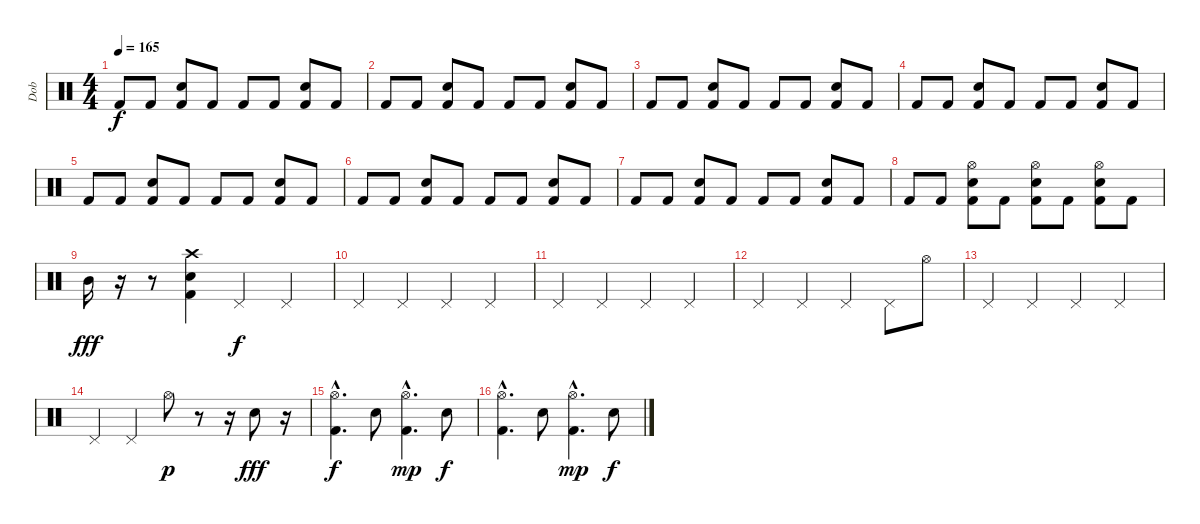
\track ("Dob" "Dob") {instrument percussion}
\staff {score}
\articulation defaults
\ts (4 4)
\tempo 165
\clef neutral
\ks c "Kick (hit) 2".8{dy f} "Kick (hit) 2".8
("Electric Snare (hit)" "Kick (hit) 2").8 "Kick (hit) 2".8 "Kick (hit) 2".8 "Kick (hit) 2".8 ("Electric Snare (hit)" "Kick (hit) 2").8 "Kick (hit) 2".8 |
"Kick (hit) 2".8 "Kick (hit) 2".8 ("Electric Snare (hit)" "Kick (hit) 2").8 "Kick (hit) 2".8 "Kick (hit) 2".8 "Kick (hit) 2".8 ("Electric Snare (hit)" "Kick (hit) 2").8 "Kick (hit) 2".8 |
"Kick (hit) 2".8 "Kick (hit) 2".8 ("Electric Snare (hit)" "Kick (hit) 2").8 "Kick (hit) 2".8 "Kick (hit) 2".8 "Kick (hit) 2".8 ("Electric Snare (hit)" "Kick (hit) 2").8 "Kick (hit) 2".8 |
"Kick (hit) 2".8 "Kick (hit) 2".8 ("Electric Snare (hit)" "Kick (hit) 2").8 "Kick (hit) 2".8 "Kick (hit) 2".8 "Kick (hit) 2".8 ("Electric Snare (hit)" "Kick (hit) 2").8 "Kick (hit) 2".8 |
"Kick (hit) 2".8 "Kick (hit) 2".8 ("Electric Snare (hit)" "Kick (hit) 2").8 "Kick (hit) 2".8 "Kick (hit) 2".8 "Kick (hit) 2".8 ("Electric Snare (hit)" "Kick (hit) 2").8 "Kick (hit) 2".8 |
"Kick (hit) 2".8 "Kick (hit) 2".8 ("Electric Snare (hit)" "Kick (hit) 2").8 "Kick (hit) 2".8 "Kick (hit) 2".8 "Kick (hit) 2".8 ("Electric Snare (hit)" "Kick (hit) 2").8 "Kick (hit) 2".8 |
"Kick (hit) 2".8 "Kick (hit) 2".8 ("Electric Snare (hit)" "Kick (hit) 2").8 "Kick (hit) 2".8 "Kick (hit) 2".8 "Kick (hit) 2".8 ("Electric Snare (hit)" "Kick (hit) 2").8 "Kick (hit) 2".8 |
"Kick (hit) 2".8 "Kick (hit) 2".8 ("Electric Snare (hit)" "Kick (hit) 2" "Hi-Hat (open)").8 "Kick (hit) 2".8 ("Electric Snare (hit)" "Kick (hit) 2" "Hi-Hat (open)").8 "Kick (hit) 2".8 ("Electric Snare (hit)" "Kick (hit) 2" "Hi-Hat (open)").8 "Kick (hit) 2".8 |
"Mid Tom (hit)"{tr (47 32)}.16{dy fff} r.16 r.8 ("Electric Snare (hit)" "Kick (hit) 2" "Crash high (hit)").4 "Pedal Hi-Hat (hit)".4{dy f} "Pedal Hi-Hat (hit)".4 |
"Pedal Hi-Hat (hit)".4 "Pedal Hi-Hat (hit)".4 "Pedal Hi-Hat (hit)".4 "Pedal Hi-Hat (hit)".4 |
"Pedal Hi-Hat (hit)".4 "Pedal Hi-Hat (hit)".4 "Pedal Hi-Hat (hit)".4 "Pedal Hi-Hat (hit)".4 |
"Pedal Hi-Hat (hit)".4 "Pedal Hi-Hat (hit)".4 "Pedal Hi-Hat (hit)".4 "Pedal Hi-Hat (hit)".8 "Hi-Hat (open)".8 |
"Pedal Hi-Hat (hit)".4 "Pedal Hi-Hat (hit)".4 "Pedal Hi-Hat (hit)".4 "Pedal Hi-Hat (hit)".4 |
"Pedal Hi-Hat (hit)".4 "Pedal Hi-Hat (hit)".4 "Hi-Hat (open)".8{dy p} r.8 r.16 "Electric Snare (hit)"{tr (40 16)}.8{dy fff} r.16 |
("Kick (hit) 2"{hac} "Hi-Hat (open)"{hac}).4{d dy f} "Electric Snare (hit)".8 ("Kick (hit) 2"{hac} "Hi-Hat (open)"{hac}).4{d dy mp} "Electric Snare (hit)".8{dy f} |
("Kick (hit) 2"{hac} "Hi-Hat (open)"{hac}).4{d} "Electric Snare (hit)".8 ("Kick (hit) 2"{hac} "Hi-Hat (open)"{hac}).4{d dy mp} "Electric Snare (hit)".8{dy f}
